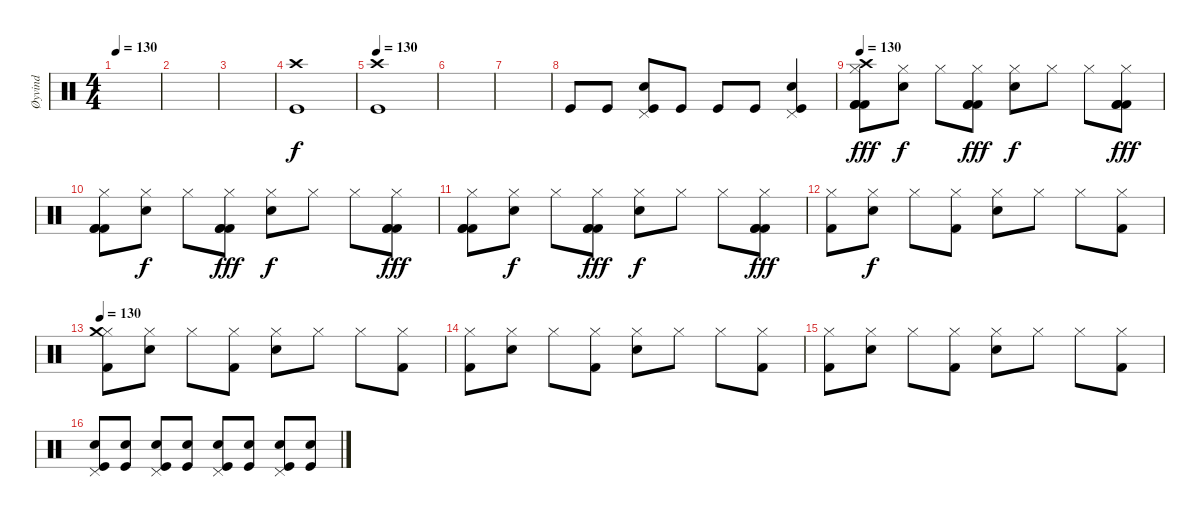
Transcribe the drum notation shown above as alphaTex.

\track ("Øyvind" "Øyvind") {instrument percussion}
\staff {score}
\articulation defaults
\ts (4 4)
\tempo 130
\clef neutral
\ks c
|
|
|
("Crash high (hit)" "Kick (hit)").1 |
\tempo 130
("Crash high (hit)" "Kick (hit)").1 |
|
|
"Kick (hit)".8 "Kick (hit)".8 ("Pedal Hi-Hat (hit)" "Snare (hit) 2" "Kick (hit)").8 "Kick (hit)".8 "Kick (hit)".8 "Kick (hit)".8 ("Pedal Hi-Hat (hit)" "Snare (hit) 2" "Kick (hit)").4 |
\tempo 130
("Crash high (hit)" "Hi-Hat (closed)" "Kick (hit) 2" "Kick (hit) 2" "Kick (hit) 2").8{dy fff} ("Hi-Hat (closed)" "Snare (hit)").8{dy f} "Hi-Hat (closed)".8 ("Hi-Hat (closed)" "Kick (hit) 2" "Kick (hit) 2" "Kick (hit) 2").8{dy fff} ("Hi-Hat (closed)" "Snare (hit) 2").8{dy f} "Hi-Hat (closed)".8 "Hi-Hat (closed)".8 ("Hi-Hat (closed)" "Kick (hit) 2" "Kick (hit) 2" "Kick (hit) 2").8{dy fff} |
("Hi-Hat (closed)" "Kick (hit) 2" "Kick (hit) 2" "Kick (hit) 2").8 ("Hi-Hat (closed)" "Snare (hit)").8{dy f} "Hi-Hat (closed)".8 ("Hi-Hat (closed)" "Kick (hit) 2" "Kick (hit) 2" "Kick (hit) 2").8{dy fff} ("Hi-Hat (closed)" "Snare (hit) 2").8{dy f} "Hi-Hat (closed)".8 "Hi-Hat (closed)".8 ("Hi-Hat (closed)" "Kick (hit) 2" "Kick (hit) 2" "Kick (hit) 2").8{dy fff} |
("Hi-Hat (closed)" "Kick (hit) 2" "Kick (hit) 2" "Kick (hit) 2").8 ("Hi-Hat (closed)" "Snare (hit)").8{dy f} "Hi-Hat (closed)".8 ("Hi-Hat (closed)" "Kick (hit) 2" "Kick (hit) 2" "Kick (hit) 2").8{dy fff} ("Hi-Hat (closed)" "Snare (hit) 2").8{dy f} "Hi-Hat (closed)".8 "Hi-Hat (closed)".8 ("Hi-Hat (closed)" "Kick (hit) 2" "Kick (hit) 2" "Kick (hit) 2").8{dy fff} |
("Hi-Hat (closed)" "Kick (hit) 2").8 ("Hi-Hat (closed)" "Snare (hit)").8{dy f} "Hi-Hat (closed)".8 ("Hi-Hat (closed)" "Kick (hit) 2").8 ("Hi-Hat (closed)" "Snare (hit) 2").8 "Hi-Hat (closed)".8 "Hi-Hat (closed)".8 ("Hi-Hat (closed)" "Kick (hit) 2").8 |
\tempo 130
("Hi-Hat (closed)" "Crash medium (hit)" "Kick (hit) 2").8 ("Hi-Hat (closed)" "Snare (hit)").8 "Hi-Hat (closed)".8 ("Hi-Hat (closed)" "Kick (hit) 2").8 ("Hi-Hat (closed)" "Snare (hit) 2").8 "Hi-Hat (closed)".8 "Hi-Hat (closed)".8 ("Hi-Hat (closed)" "Kick (hit) 2").8 |
("Hi-Hat (closed)" "Kick (hit) 2").8 ("Hi-Hat (closed)" "Snare (hit)").8 "Hi-Hat (closed)".8 ("Hi-Hat (closed)" "Kick (hit) 2").8 ("Hi-Hat (closed)" "Snare (hit) 2").8 "Hi-Hat (closed)".8 "Hi-Hat (closed)".8 ("Hi-Hat (closed)" "Kick (hit) 2").8 |
("Hi-Hat (closed)" "Kick (hit) 2").8 ("Hi-Hat (closed)" "Snare (hit)").8 "Hi-Hat (closed)".8 ("Hi-Hat (closed)" "Kick (hit) 2").8 ("Hi-Hat (closed)" "Snare (hit) 2").8 "Hi-Hat (closed)".8 "Hi-Hat (closed)".8 ("Hi-Hat (closed)" "Kick (hit) 2").8 |
("Pedal Hi-Hat (hit)" "Snare (hit) 2" "Kick (hit)").8 ("Snare (hit) 2" "Kick (hit)").8 ("Pedal Hi-Hat (hit)" "Snare (hit) 2" "Kick (hit)").8 ("Snare (hit) 2" "Kick (hit)").8 ("Pedal Hi-Hat (hit)" "Snare (hit) 2" "Kick (hit)").8 ("Snare (hit) 2" "Kick (hit)").8 ("Pedal Hi-Hat (hit)" "Snare (hit) 2" "Kick (hit)").8 ("Snare (hit) 2" "Kick (hit)").8
